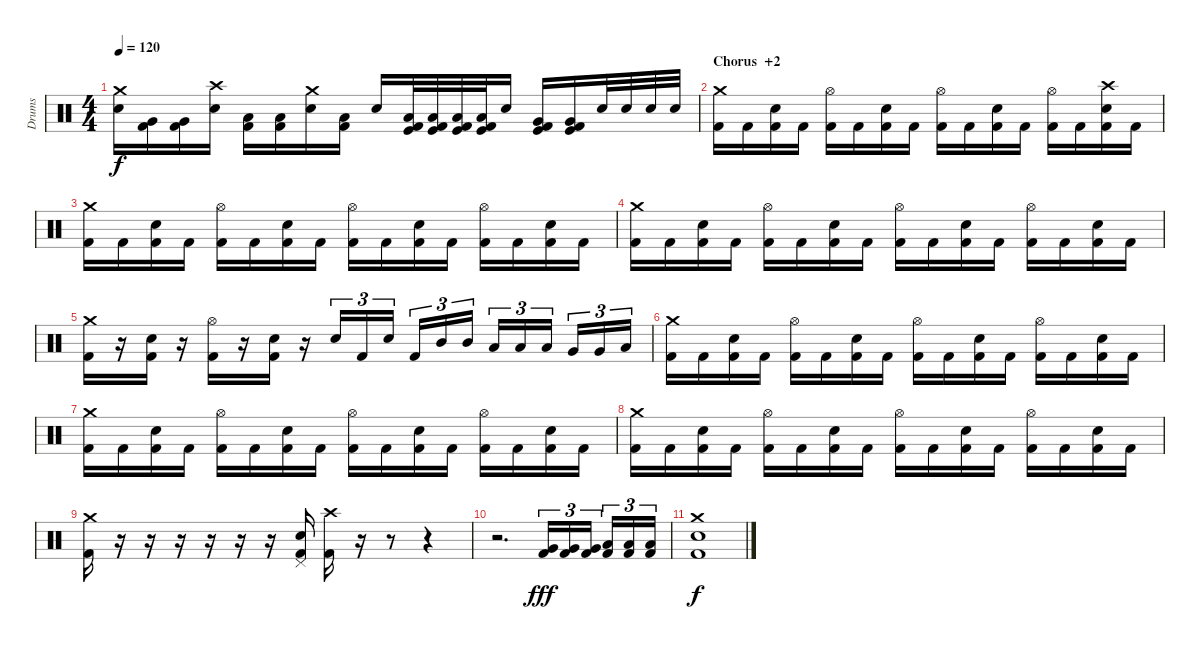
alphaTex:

\track ("Drums" "Drums") {instrument percussion}
\staff {score}
\articulation defaults
\ts (4 4)
\tempo 120
\clef neutral
\ks c
("Crash medium (hit)" "Snare (hit) 2").16{dy f} ("Very Low Tom (hit)" "Kick (hit) 2").16 ("Very Low Tom (hit)" "Kick (hit) 2").16 ("Crash high (hit)" "Snare (hit) 2").16 ("Low Floor Tom (hit)" "Kick (hit) 2").16 ("Low Floor Tom (hit)" "Kick (hit) 2").16 ("Crash medium (hit)" "Snare (hit) 2").16 ("Low Floor Tom (hit)" "Kick (hit) 2").16 "Snare (hit) 2".16 ("Low Floor Tom (hit)" "Kick (hit)" "Kick (hit) 2").32 ("Low Floor Tom (hit)" "Kick (hit)" "Kick (hit) 2").32 ("Low Floor Tom (hit)" "Kick (hit)" "Kick (hit) 2").32 ("Low Floor Tom (hit)" "Kick (hit)" "Kick (hit) 2").32 "Snare (hit) 2".16 ("Very Low Tom (hit)" "Kick (hit)" "Kick (hit) 2").16 ("Very Low Tom (hit)" "Kick (hit)" "Kick (hit) 2").16 "Snare (hit) 2".32 "Snare (hit) 2".32 "Snare (hit) 2".32 "Snare (hit) 2".32 |
\section ("" "Chorus  +2")
("Crash medium (hit)" "Kick (hit) 2").16 "Kick (hit) 2".16 ("Snare (hit) 2" "Kick (hit) 2").16 "Kick (hit) 2".16 ("Hi-Hat (open)" "Kick (hit) 2").16 "Kick (hit) 2".16 ("Snare (hit) 2" "Kick (hit) 2").16 "Kick (hit) 2".16 ("Hi-Hat (open)" "Kick (hit) 2").16 "Kick (hit) 2".16 ("Snare (hit) 2" "Kick (hit) 2").16 "Kick (hit) 2".16 ("Hi-Hat (open)" "Kick (hit) 2").16 "Kick (hit) 2".16 ("Crash high (hit)" "Snare (hit) 2" "Kick (hit) 2").16 "Kick (hit) 2".16 |
("Crash medium (hit)" "Kick (hit) 2").16 "Kick (hit) 2".16 ("Snare (hit) 2" "Kick (hit) 2").16 "Kick (hit) 2".16 ("Hi-Hat (open)" "Kick (hit) 2").16 "Kick (hit) 2".16 ("Snare (hit) 2" "Kick (hit) 2").16 "Kick (hit) 2".16 ("Hi-Hat (open)" "Kick (hit) 2").16 "Kick (hit) 2".16 ("Snare (hit) 2" "Kick (hit) 2").16 "Kick (hit) 2".16 ("Hi-Hat (open)" "Kick (hit) 2").16 "Kick (hit) 2".16 ("Snare (hit) 2" "Kick (hit) 2").16 "Kick (hit) 2".16 |
("Crash medium (hit)" "Kick (hit) 2").16 "Kick (hit) 2".16 ("Snare (hit) 2" "Kick (hit) 2").16 "Kick (hit) 2".16 ("Hi-Hat (open)" "Kick (hit) 2").16 "Kick (hit) 2".16 ("Snare (hit) 2" "Kick (hit) 2").16 "Kick (hit) 2".16 ("Hi-Hat (open)" "Kick (hit) 2").16 "Kick (hit) 2".16 ("Snare (hit) 2" "Kick (hit) 2").16 "Kick (hit) 2".16 ("Hi-Hat (open)" "Kick (hit) 2").16 "Kick (hit) 2".16 ("Snare (hit) 2" "Kick (hit) 2").16 "Kick (hit) 2".16 |
("Crash medium (hit)" "Kick (hit) 2").16 r.16 ("Snare (hit) 2" "Kick (hit) 2").16 r.16 ("Hi-Hat (open)" "Kick (hit) 2").16 r.16 ("Snare (hit) 2" "Kick (hit) 2").16 r.16 "Snare (hit) 2".16{tu (3 2)} "Kick (hit) 2".16{tu (3 2)} "Snare (hit) 2".16{tu (3 2)} "Kick (hit) 2".16{tu (3 2)} "Mid Tom (hit)".16{tu (3 2)} "Mid Tom (hit)".16{tu (3 2)} "Low Tom (hit)".16{tu (3 2)} "Low Tom (hit)".16{tu (3 2)} "Low Tom (hit)".16{tu (3 2)} "Very Low Tom (hit)".16{tu (3 2)} "Very Low Tom (hit)".16{tu (3 2)} "Low Floor Tom (hit)".16{tu (3 2)} |
("Crash medium (hit)" "Kick (hit) 2").16 "Kick (hit) 2".16 ("Snare (hit) 2" "Kick (hit) 2").16 "Kick (hit) 2".16 ("Hi-Hat (open)" "Kick (hit) 2").16 "Kick (hit) 2".16 ("Snare (hit) 2" "Kick (hit) 2").16 "Kick (hit) 2".16 ("Hi-Hat (open)" "Kick (hit) 2").16 "Kick (hit) 2".16 ("Snare (hit) 2" "Kick (hit) 2").16 "Kick (hit) 2".16 ("Hi-Hat (open)" "Kick (hit) 2").16 "Kick (hit) 2".16 ("Snare (hit) 2" "Kick (hit) 2").16 "Kick (hit) 2".16 |
("Crash medium (hit)" "Kick (hit) 2").16 "Kick (hit) 2".16 ("Snare (hit) 2" "Kick (hit) 2").16 "Kick (hit) 2".16 ("Hi-Hat (open)" "Kick (hit) 2").16 "Kick (hit) 2".16 ("Snare (hit) 2" "Kick (hit) 2").16 "Kick (hit) 2".16 ("Hi-Hat (open)" "Kick (hit) 2").16 "Kick (hit) 2".16 ("Snare (hit) 2" "Kick (hit) 2").16 "Kick (hit) 2".16 ("Hi-Hat (open)" "Kick (hit) 2").16 "Kick (hit) 2".16 ("Snare (hit) 2" "Kick (hit) 2").16 "Kick (hit) 2".16 |
("Crash medium (hit)" "Kick (hit) 2").16 "Kick (hit) 2".16 ("Snare (hit) 2" "Kick (hit) 2").16 "Kick (hit) 2".16 ("Hi-Hat (open)" "Kick (hit) 2").16 "Kick (hit) 2".16 ("Snare (hit) 2" "Kick (hit) 2").16 "Kick (hit) 2".16 ("Hi-Hat (open)" "Kick (hit) 2").16 "Kick (hit) 2".16 ("Snare (hit) 2" "Kick (hit) 2").16 "Kick (hit) 2".16 ("Hi-Hat (open)" "Kick (hit) 2").16 "Kick (hit) 2".16 ("Snare (hit) 2" "Kick (hit) 2").16 "Kick (hit) 2".16 |
("Crash medium (hit)" "Kick (hit) 2").16 r.16 r.16 r.16 r.16 r.16 r.16 ("Pedal Hi-Hat (hit)" "Snare (hit) 2" "Kick (hit) 2").16 ("Crash high (hit)" "Kick (hit) 2").16 r.16 r.8 r.4 |
r.2{d} ("Very Low Tom (hit)" "Kick (hit) 2").16{tu (3 2) dy fff} ("Very Low Tom (hit)" "Kick (hit) 2").16{tu (3 2)} ("Very Low Tom (hit)" "Kick (hit) 2").16{tu (3 2)} ("Low Floor Tom (hit)" "Kick (hit) 2").16{tu (3 2)} ("Low Floor Tom (hit)" "Kick (hit) 2").16{tu (3 2)} ("Low Floor Tom (hit)" "Kick (hit) 2").16{tu (3 2)} |
("Crash medium (hit)" "Snare (hit) 2" "Kick (hit) 2").1{dy f}
